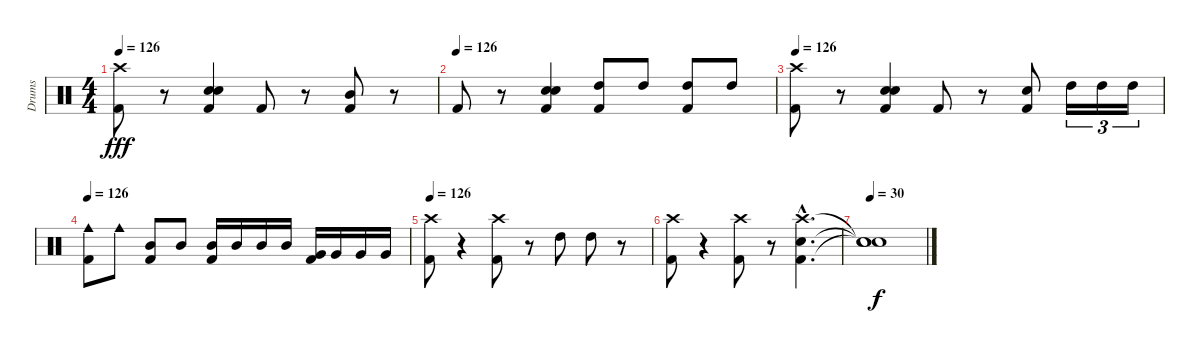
\track ("Drums" "Drums") {instrument percussion}
\staff {score}
\articulation defaults
\ts (4 4)
\tempo 126
\clef neutral
\ks c
("Crash high (hit)" "Kick (hit) 2").8{dy fff} r.8 ("Snare (hit) 2" "Kick (hit) 2" "Snare (hit) 2").4 "Kick (hit) 2".8 r.8 ("Kick (hit) 2" "Mid Tom (hit)").8 r.8 |
\tempo (126)
"Kick (hit) 2".8 r.8 ("Snare (hit) 2" "Snare (hit) 2" "Kick (hit) 2").4 ("Kick (hit) 2" "High Tom (hit)").8 "High Tom (hit)".8 ("Kick (hit) 2" "High Tom (hit)").8 "High Tom (hit)".8 |
\tempo 126
("Crash high (hit)" "Kick (hit) 2").8 r.8 ("Snare (hit) 2" "Kick (hit) 2" "Snare (hit) 2").4 "Kick (hit) 2".8 r.8 ("Kick (hit) 2" "Snare (hit) 2").8 "High Tom (hit)".16{tu (3 2)} "High Tom (hit)".16{tu (3 2)} "High Tom (hit)".16{tu (3 2)} |
\tempo 126
("Kick (hit) 2" "Cowbell medium (hit)").8 "Cowbell medium (hit)".8 ("Kick (hit) 2" "Mid Tom (hit)").8 "Mid Tom (hit)".8 ("Kick (hit) 2" "Mid Tom (hit)").16 "Mid Tom (hit)".16 "Mid Tom (hit)".16 "Mid Tom (hit)".16 ("Kick (hit) 2" "Very Low Tom (hit)").16 "Very Low Tom (hit)".16 "Very Low Tom (hit)".16 "Very Low Tom (hit)".16 |
\tempo 126
("Crash high (hit)" "Kick (hit) 2").8 r.4 ("Crash high (hit)" "Kick (hit) 2").8 r.8 "High Tom (hit)".8 "High Tom (hit)".8 r.8 |
("Kick (hit) 2" "Crash high (hit)").8 r.4 ("Crash high (hit)" "Kick (hit) 2").8 r.8 ("Kick (hit) 2"{hac} "Snare (hit) 2"{hac} "Crash high (hit)"{hac}).4{d} |
\tempo 30
("Snare (hit)"{t} "Snare (hit)"{t} "Snare (hit)"{t}).1{dy f}
